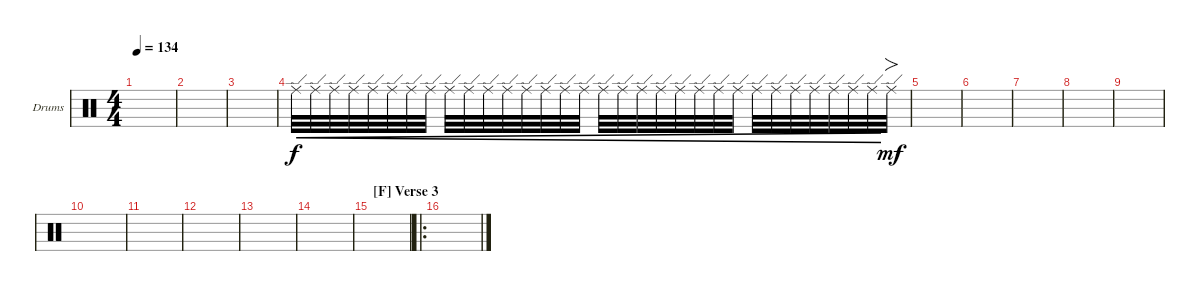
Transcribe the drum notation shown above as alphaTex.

\defaultSystemsLayout 4
\bracketExtendMode groupsimilarinstruments
\firstSystemTrackNameOrientation horizontal
\otherSystemsTrackNameOrientation horizontal
\track ("Cymbals" "Drums") {instrument percussion}
\staff {score}
\articulation defaults
\ts (4 4)
\tempo 134
\clef neutral
\ks c
|
|
|
"Ride (edge)".32{cre} "Ride (edge)".32{cre} "Ride (edge)".32{cre} "Ride (edge)".32{cre} "Ride (edge)".32{cre} "Ride (edge)".32{cre} "Ride (edge)".32{cre} "Ride (edge)".32{cre} "Ride (edge)".32{cre} "Ride (edge)".32{cre} "Ride (edge)".32{cre} "Ride (edge)".32{cre} "Ride (edge)".32{cre} "Ride (edge)".32{cre} "Ride (edge)".32{cre} "Ride (edge)".32{cre} "Ride (edge)".32{cre} "Ride (edge)".32{cre} "Ride (edge)".32{cre} "Ride (edge)".32{cre} "Ride (edge)".32{cre} "Ride (edge)".32{cre} "Ride (edge)".32{cre} "Ride (edge)".32{cre} "Ride (edge)".32{cre} "Ride (edge)".32{cre} "Ride (edge)".32{cre} "Ride (edge)".32{cre} "Ride (edge)".32{cre} "Ride (edge)".32{cre} "Ride (edge)".32{cre dy f} "Ride (edge)".32{fo dy mf} |
|
|
|
|
|
|
|
|
|
|
\section ("F" "Verse 3")
|
\ro
